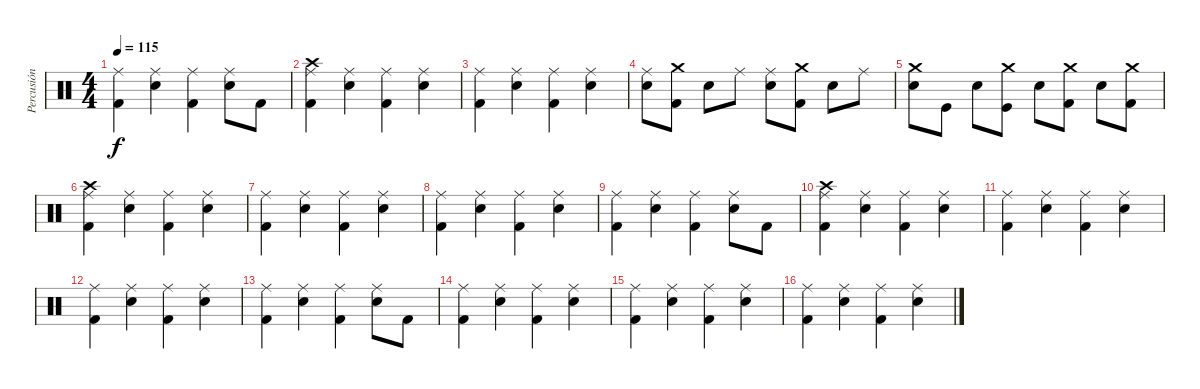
\track ("Percusión" "Percusión") {instrument percussion}
\staff {score}
\articulation defaults
\ts (4 4)
\tempo 115
\clef neutral
\ks c
("Kick (hit) 2" "Ride (middle)").4{dy f} ("Snare (hit) 2" "Ride (middle)").4 ("Kick (hit) 2" "Ride (middle)").4 ("Snare (hit) 2" "Ride (middle)").8 "Kick (hit) 2".8 |
("Kick (hit) 2" "Ride (middle)" "Crash high (hit)").4 ("Snare (hit) 2" "Ride (middle)").4 ("Kick (hit) 2" "Ride (middle)").4 ("Snare (hit) 2" "Ride (middle)").4 |
("Kick (hit) 2" "Ride (middle)").4 ("Snare (hit) 2" "Ride (middle)").4 ("Kick (hit) 2" "Ride (middle)").4 ("Snare (hit) 2" "Ride (middle)").4 |
("Snare (hit) 2" "Ride (middle)").8 ("Kick (hit) 2" "Crash medium (hit)").8 "Snare (hit) 2".8 "Ride (middle)".8 ("Snare (hit) 2" "Ride (middle)").8 ("Kick (hit) 2" "Crash medium (hit)").8 "Snare (hit) 2".8 "Ride (middle)".8 |
("Snare (hit) 2" "Crash medium (hit)").8 "Kick (hit)".8 "Snare (hit) 2".8 ("Kick (hit)" "Crash medium (hit)").8 "Snare (hit) 2".8 ("Kick (hit) 2" "Crash medium (hit)").8 "Snare (hit) 2".8 ("Kick (hit) 2" "Crash medium (hit)").8 |
("Kick (hit) 2" "Ride (middle)" "Crash high (hit)").4 ("Snare (hit) 2" "Ride (middle)").4 ("Kick (hit) 2" "Ride (middle)").4 ("Snare (hit) 2" "Ride (middle)").4 |
("Kick (hit) 2" "Ride (middle)").4 ("Snare (hit) 2" "Ride (middle)").4 ("Kick (hit) 2" "Ride (middle)").4 ("Snare (hit) 2" "Ride (middle)").4 |
("Kick (hit) 2" "Ride (middle)").4 ("Snare (hit) 2" "Ride (middle)").4 ("Kick (hit) 2" "Ride (middle)").4 ("Snare (hit) 2" "Ride (middle)").4 |
("Kick (hit) 2" "Ride (middle)").4 ("Snare (hit) 2" "Ride (middle)").4 ("Kick (hit) 2" "Ride (middle)").4 ("Snare (hit) 2" "Ride (middle)").8 "Kick (hit) 2".8 |
("Kick (hit) 2" "Ride (middle)" "Crash high (hit)").4 ("Snare (hit) 2" "Ride (middle)").4 ("Kick (hit) 2" "Ride (middle)").4 ("Snare (hit) 2" "Ride (middle)").4 |
("Kick (hit) 2" "Ride (middle)").4 ("Snare (hit) 2" "Ride (middle)").4 ("Kick (hit) 2" "Ride (middle)").4 ("Snare (hit) 2" "Ride (middle)").4 |
("Kick (hit) 2" "Ride (middle)").4 ("Snare (hit) 2" "Ride (middle)").4 ("Kick (hit) 2" "Ride (middle)").4 ("Snare (hit) 2" "Ride (middle)").4 |
("Kick (hit) 2" "Ride (middle)").4 ("Snare (hit) 2" "Ride (middle)").4 ("Kick (hit) 2" "Ride (middle)").4 ("Snare (hit) 2" "Ride (middle)").8 "Kick (hit) 2".8 |
("Kick (hit) 2" "Ride (middle)").4 ("Snare (hit) 2" "Ride (middle)").4 ("Kick (hit) 2" "Ride (middle)").4 ("Snare (hit) 2" "Ride (middle)").4 |
("Kick (hit) 2" "Ride (middle)").4 ("Snare (hit) 2" "Ride (middle)").4 ("Kick (hit) 2" "Ride (middle)").4 ("Snare (hit) 2" "Ride (middle)").4 |
("Kick (hit) 2" "Ride (middle)").4 ("Snare (hit) 2" "Ride (middle)").4 ("Kick (hit) 2" "Ride (middle)").4 ("Snare (hit) 2" "Ride (middle)").4
